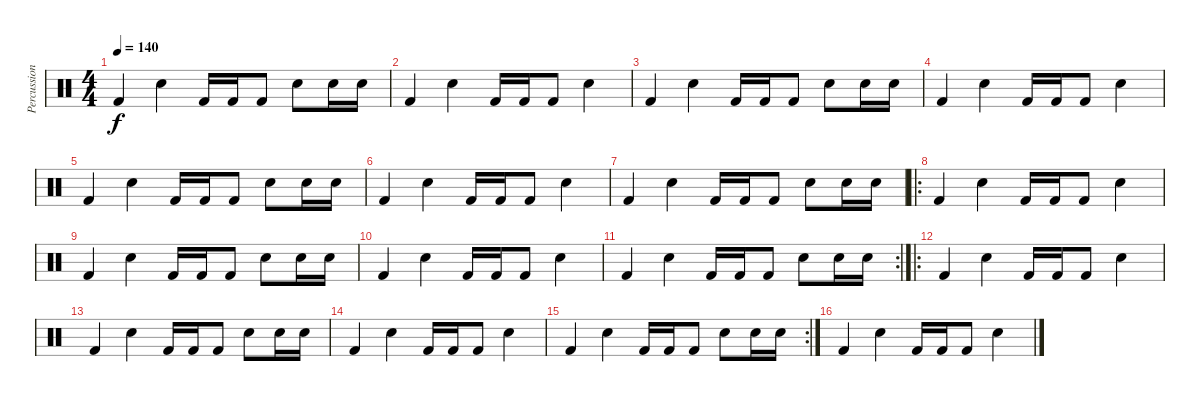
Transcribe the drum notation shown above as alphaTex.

\track ("Percussion" "Percussion") {instrument percussion}
\staff {score}
\articulation defaults
\ts (4 4)
\tempo 140
\clef neutral
\ks c "Kick (hit) 2".4{dy f} "Electric Snare (hit)".4 "Kick (hit) 2".16 "Kick (hit) 2".16 "Kick (hit) 2".8 "Electric Snare (hit)".8 "Electric Snare (hit)".16 "Electric Snare (hit)".16
|
"Kick (hit) 2".4 "Electric Snare (hit)".4 "Kick (hit) 2".16 "Kick (hit) 2".16 "Kick (hit) 2".8 "Electric Snare (hit)".4 |
"Kick (hit) 2".4 "Electric Snare (hit)".4 "Kick (hit) 2".16 "Kick (hit) 2".16 "Kick (hit) 2".8 "Electric Snare (hit)".8 "Electric Snare (hit)".16 "Electric Snare (hit)".16 |
"Kick (hit) 2".4 "Electric Snare (hit)".4 "Kick (hit) 2".16 "Kick (hit) 2".16 "Kick (hit) 2".8 "Electric Snare (hit)".4 |
"Kick (hit) 2".4 "Electric Snare (hit)".4 "Kick (hit) 2".16 "Kick (hit) 2".16 "Kick (hit) 2".8 "Electric Snare (hit)".8 "Electric Snare (hit)".16 "Electric Snare (hit)".16 |
"Kick (hit) 2".4 "Electric Snare (hit)".4 "Kick (hit) 2".16 "Kick (hit) 2".16 "Kick (hit) 2".8 "Electric Snare (hit)".4 |
"Kick (hit) 2".4 "Electric Snare (hit)".4 "Kick (hit) 2".16 "Kick (hit) 2".16 "Kick (hit) 2".8 "Electric Snare (hit)".8 "Electric Snare (hit)".16 "Electric Snare (hit)".16 |
\ro "Kick (hit) 2".4 "Electric Snare (hit)".4 "Kick (hit) 2".16 "Kick (hit) 2".16 "Kick (hit) 2".8 "Electric Snare (hit)".4
|
"Kick (hit) 2".4 "Electric Snare (hit)".4 "Kick (hit) 2".16 "Kick (hit) 2".16 "Kick (hit) 2".8 "Electric Snare (hit)".8 "Electric Snare (hit)".16 "Electric Snare (hit)".16 |
"Kick (hit) 2".4 "Electric Snare (hit)".4 "Kick (hit) 2".16 "Kick (hit) 2".16 "Kick (hit) 2".8 "Electric Snare (hit)".4 |
\rc 2 "Kick (hit) 2".4 "Electric Snare (hit)".4 "Kick (hit) 2".16 "Kick (hit) 2".16 "Kick (hit) 2".8 "Electric Snare (hit)".8 "Electric Snare (hit)".16 "Electric Snare (hit)".16
|
\ro "Kick (hit) 2".4 "Electric Snare (hit)".4 "Kick (hit) 2".16 "Kick (hit) 2".16 "Kick (hit) 2".8 "Electric Snare (hit)".4
|
"Kick (hit) 2".4 "Electric Snare (hit)".4 "Kick (hit) 2".16 "Kick (hit) 2".16 "Kick (hit) 2".8 "Electric Snare (hit)".8 "Electric Snare (hit)".16 "Electric Snare (hit)".16 |
"Kick (hit) 2".4 "Electric Snare (hit)".4 "Kick (hit) 2".16 "Kick (hit) 2".16 "Kick (hit) 2".8 "Electric Snare (hit)".4 |
\rc 2 "Kick (hit) 2".4 "Electric Snare (hit)".4 "Kick (hit) 2".16 "Kick (hit) 2".16 "Kick (hit) 2".8 "Electric Snare (hit)".8 "Electric Snare (hit)".16 "Electric Snare (hit)".16
|
"Kick (hit) 2".4 "Electric Snare (hit)".4 "Kick (hit) 2".16 "Kick (hit) 2".16 "Kick (hit) 2".8 "Electric Snare (hit)".4
